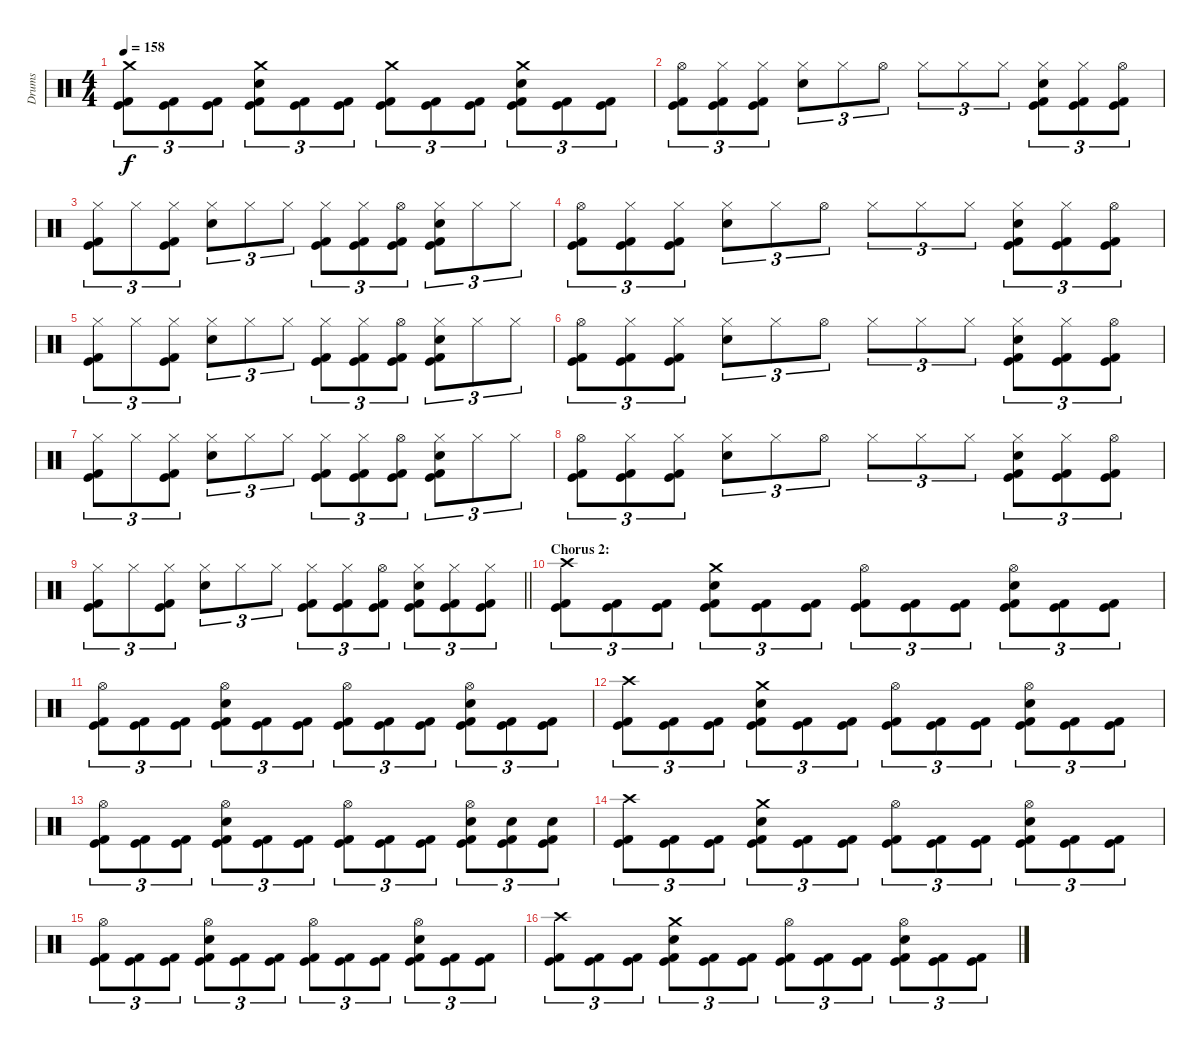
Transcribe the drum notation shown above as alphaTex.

\track ("Drums" "Drums") {instrument percussion}
\staff {score}
\articulation defaults
\ts (4 4)
\tempo 158
\clef neutral
\ks c
("Crash medium (hit)" "Kick (hit)" "Kick (hit) 2").8{tu (3 2) dy f} ("Kick (hit)" "Kick (hit) 2").8{tu (3 2)} ("Kick (hit)" "Kick (hit) 2").8{tu (3 2)} ("Crash medium (hit)" "Snare (hit) 2" "Kick (hit)" "Kick (hit) 2").8{tu (3 2)} ("Kick (hit)" "Kick (hit) 2").8{tu (3 2)} ("Kick (hit)" "Kick (hit) 2").8{tu (3 2)} ("Crash medium (hit)" "Kick (hit)" "Kick (hit) 2").8{tu (3 2)} ("Kick (hit)" "Kick (hit) 2").8{tu (3 2)} ("Kick (hit)" "Kick (hit) 2").8{tu (3 2)} ("Crash medium (hit)" "Snare (hit) 2" "Kick (hit)" "Kick (hit) 2").8{tu (3 2)} ("Kick (hit)" "Kick (hit) 2").8{tu (3 2)} ("Kick (hit)" "Kick (hit) 2").8{tu (3 2)} |
("Hi-Hat (open)" "Kick (hit)" "Kick (hit) 2").8{tu (3 2)} ("Hi-Hat (closed)" "Kick (hit)" "Kick (hit) 2").8{tu (3 2)} ("Hi-Hat (closed)" "Kick (hit)" "Kick (hit) 2").8{tu (3 2)} ("Hi-Hat (closed)" "Snare (hit) 2").8{tu (3 2)} "Hi-Hat (closed)".8{tu (3 2)} "Hi-Hat (open)".8{tu (3 2)} "Hi-Hat (closed)".8{tu (3 2)} "Hi-Hat (closed)".8{tu (3 2)} "Hi-Hat (closed)".8{tu (3 2)} ("Hi-Hat (closed)" "Snare (hit) 2" "Kick (hit)" "Kick (hit) 2").8{tu (3 2)} ("Hi-Hat (closed)" "Kick (hit)" "Kick (hit) 2").8{tu (3 2)} ("Hi-Hat (open)" "Kick (hit)" "Kick (hit) 2").8{tu (3 2)} |
("Hi-Hat (closed)" "Kick (hit)" "Kick (hit) 2").8{tu (3 2)} "Hi-Hat (closed)".8{tu (3 2)} ("Hi-Hat (closed)" "Kick (hit)" "Kick (hit) 2").8{tu (3 2)} ("Hi-Hat (closed)" "Snare (hit) 2").8{tu (3 2)} "Hi-Hat (closed)".8{tu (3 2)} "Hi-Hat (closed)".8{tu (3 2)} ("Hi-Hat (closed)" "Kick (hit)" "Kick (hit) 2").8{tu (3 2)} ("Hi-Hat (closed)" "Kick (hit)" "Kick (hit) 2").8{tu (3 2)} ("Hi-Hat (open)" "Kick (hit)" "Kick (hit) 2").8{tu (3 2)} ("Hi-Hat (closed)" "Snare (hit) 2" "Kick (hit)" "Kick (hit) 2").8{tu (3 2)} "Hi-Hat (closed)".8{tu (3 2)} "Hi-Hat (closed)".8{tu (3 2)} |
("Hi-Hat (open)" "Kick (hit)" "Kick (hit) 2").8{tu (3 2)} ("Hi-Hat (closed)" "Kick (hit)" "Kick (hit) 2").8{tu (3 2)} ("Hi-Hat (closed)" "Kick (hit)" "Kick (hit) 2").8{tu (3 2)} ("Hi-Hat (closed)" "Snare (hit) 2").8{tu (3 2)} "Hi-Hat (closed)".8{tu (3 2)} "Hi-Hat (open)".8{tu (3 2)} "Hi-Hat (closed)".8{tu (3 2)} "Hi-Hat (closed)".8{tu (3 2)} "Hi-Hat (closed)".8{tu (3 2)} ("Hi-Hat (closed)" "Snare (hit) 2" "Kick (hit)" "Kick (hit) 2").8{tu (3 2)} ("Hi-Hat (closed)" "Kick (hit)" "Kick (hit) 2").8{tu (3 2)} ("Hi-Hat (open)" "Kick (hit)" "Kick (hit) 2").8{tu (3 2)} |
("Hi-Hat (closed)" "Kick (hit)" "Kick (hit) 2").8{tu (3 2)} "Hi-Hat (closed)".8{tu (3 2)} ("Hi-Hat (closed)" "Kick (hit)" "Kick (hit) 2").8{tu (3 2)} ("Hi-Hat (closed)" "Snare (hit) 2").8{tu (3 2)} "Hi-Hat (closed)".8{tu (3 2)} "Hi-Hat (closed)".8{tu (3 2)} ("Hi-Hat (closed)" "Kick (hit)" "Kick (hit) 2").8{tu (3 2)} ("Hi-Hat (closed)" "Kick (hit)" "Kick (hit) 2").8{tu (3 2)} ("Hi-Hat (open)" "Kick (hit)" "Kick (hit) 2").8{tu (3 2)} ("Hi-Hat (closed)" "Snare (hit) 2" "Kick (hit)" "Kick (hit) 2").8{tu (3 2)} "Hi-Hat (closed)".8{tu (3 2)} "Hi-Hat (closed)".8{tu (3 2)} |
("Hi-Hat (open)" "Kick (hit)" "Kick (hit) 2").8{tu (3 2)} ("Hi-Hat (closed)" "Kick (hit)" "Kick (hit) 2").8{tu (3 2)} ("Hi-Hat (closed)" "Kick (hit)" "Kick (hit) 2").8{tu (3 2)} ("Hi-Hat (closed)" "Snare (hit) 2").8{tu (3 2)} "Hi-Hat (closed)".8{tu (3 2)} "Hi-Hat (open)".8{tu (3 2)} "Hi-Hat (closed)".8{tu (3 2)} "Hi-Hat (closed)".8{tu (3 2)} "Hi-Hat (closed)".8{tu (3 2)} ("Hi-Hat (closed)" "Snare (hit) 2" "Kick (hit)" "Kick (hit) 2").8{tu (3 2)} ("Hi-Hat (closed)" "Kick (hit)" "Kick (hit) 2").8{tu (3 2)} ("Hi-Hat (open)" "Kick (hit)" "Kick (hit) 2").8{tu (3 2)} |
("Hi-Hat (closed)" "Kick (hit)" "Kick (hit) 2").8{tu (3 2)} "Hi-Hat (closed)".8{tu (3 2)} ("Hi-Hat (closed)" "Kick (hit)" "Kick (hit) 2").8{tu (3 2)} ("Hi-Hat (closed)" "Snare (hit) 2").8{tu (3 2)} "Hi-Hat (closed)".8{tu (3 2)} "Hi-Hat (closed)".8{tu (3 2)} ("Hi-Hat (closed)" "Kick (hit)" "Kick (hit) 2").8{tu (3 2)} ("Hi-Hat (closed)" "Kick (hit)" "Kick (hit) 2").8{tu (3 2)} ("Hi-Hat (open)" "Kick (hit)" "Kick (hit) 2").8{tu (3 2)} ("Hi-Hat (closed)" "Snare (hit) 2" "Kick (hit)" "Kick (hit) 2").8{tu (3 2)} "Hi-Hat (closed)".8{tu (3 2)} "Hi-Hat (closed)".8{tu (3 2)} |
("Hi-Hat (open)" "Kick (hit)" "Kick (hit) 2").8{tu (3 2)} ("Hi-Hat (closed)" "Kick (hit)" "Kick (hit) 2").8{tu (3 2)} ("Hi-Hat (closed)" "Kick (hit)" "Kick (hit) 2").8{tu (3 2)} ("Hi-Hat (closed)" "Snare (hit) 2").8{tu (3 2)} "Hi-Hat (closed)".8{tu (3 2)} "Hi-Hat (open)".8{tu (3 2)} "Hi-Hat (closed)".8{tu (3 2)} "Hi-Hat (closed)".8{tu (3 2)} "Hi-Hat (closed)".8{tu (3 2)} ("Hi-Hat (closed)" "Snare (hit) 2" "Kick (hit)" "Kick (hit) 2").8{tu (3 2)} ("Hi-Hat (closed)" "Kick (hit)" "Kick (hit) 2").8{tu (3 2)} ("Hi-Hat (open)" "Kick (hit)" "Kick (hit) 2").8{tu (3 2)} |
\barLineRight lightlight
("Hi-Hat (closed)" "Kick (hit)" "Kick (hit) 2").8{tu (3 2)} "Hi-Hat (closed)".8{tu (3 2)} ("Hi-Hat (closed)" "Kick (hit)" "Kick (hit) 2").8{tu (3 2)} ("Hi-Hat (closed)" "Snare (hit) 2").8{tu (3 2)} "Hi-Hat (closed)".8{tu (3 2)} "Hi-Hat (closed)".8{tu (3 2)} ("Hi-Hat (closed)" "Kick (hit)" "Kick (hit) 2").8{tu (3 2)} ("Hi-Hat (closed)" "Kick (hit)" "Kick (hit) 2").8{tu (3 2)} ("Hi-Hat (open)" "Kick (hit)" "Kick (hit) 2").8{tu (3 2)} ("Hi-Hat (closed)" "Snare (hit) 2" "Kick (hit)" "Kick (hit) 2").8{tu (3 2)} ("Hi-Hat (closed)" "Kick (hit)" "Kick (hit) 2").8{tu (3 2)} ("Hi-Hat (closed)" "Kick (hit)" "Kick (hit) 2").8{tu (3 2)} |
\section ("" "Chorus 2:")
("Crash high (hit)" "Kick (hit)" "Kick (hit) 2").8{tu (3 2)} ("Kick (hit)" "Kick (hit) 2").8{tu (3 2)} ("Kick (hit)" "Kick (hit) 2").8{tu (3 2)} ("Crash medium (hit)" "Snare (hit) 2" "Kick (hit)" "Kick (hit) 2").8{tu (3 2)} ("Kick (hit)" "Kick (hit) 2").8{tu (3 2)} ("Kick (hit)" "Kick (hit) 2").8{tu (3 2)} ("Hi-Hat (open)" "Kick (hit)" "Kick (hit) 2").8{tu (3 2)} ("Kick (hit)" "Kick (hit) 2").8{tu (3 2)} ("Kick (hit)" "Kick (hit) 2").8{tu (3 2)} ("Hi-Hat (open)" "Snare (hit) 2" "Kick (hit)" "Kick (hit) 2").8{tu (3 2)} ("Kick (hit)" "Kick (hit) 2").8{tu (3 2)} ("Kick (hit)" "Kick (hit) 2").8{tu (3 2)} |
("Hi-Hat (open)" "Kick (hit)" "Kick (hit) 2").8{tu (3 2)} ("Kick (hit)" "Kick (hit) 2").8{tu (3 2)} ("Kick (hit)" "Kick (hit) 2").8{tu (3 2)} ("Hi-Hat (open)" "Snare (hit) 2" "Kick (hit)" "Kick (hit) 2").8{tu (3 2)} ("Kick (hit)" "Kick (hit) 2").8{tu (3 2)} ("Kick (hit)" "Kick (hit) 2").8{tu (3 2)} ("Hi-Hat (open)" "Kick (hit)" "Kick (hit) 2").8{tu (3 2)} ("Kick (hit)" "Kick (hit) 2").8{tu (3 2)} ("Kick (hit)" "Kick (hit) 2").8{tu (3 2)} ("Hi-Hat (open)" "Snare (hit) 2" "Kick (hit)" "Kick (hit) 2").8{tu (3 2)} ("Kick (hit)" "Kick (hit) 2").8{tu (3 2)} ("Kick (hit)" "Kick (hit) 2").8{tu (3 2)} |
("Crash high (hit)" "Kick (hit)" "Kick (hit) 2").8{tu (3 2)} ("Kick (hit)" "Kick (hit) 2").8{tu (3 2)} ("Kick (hit)" "Kick (hit) 2").8{tu (3 2)} ("Crash medium (hit)" "Snare (hit) 2" "Kick (hit)" "Kick (hit) 2").8{tu (3 2)} ("Kick (hit)" "Kick (hit) 2").8{tu (3 2)} ("Kick (hit)" "Kick (hit) 2").8{tu (3 2)} ("Hi-Hat (open)" "Kick (hit)" "Kick (hit) 2").8{tu (3 2)} ("Kick (hit)" "Kick (hit) 2").8{tu (3 2)} ("Kick (hit)" "Kick (hit) 2").8{tu (3 2)} ("Hi-Hat (open)" "Snare (hit) 2" "Kick (hit)" "Kick (hit) 2").8{tu (3 2)} ("Kick (hit)" "Kick (hit) 2").8{tu (3 2)} ("Kick (hit)" "Kick (hit) 2").8{tu (3 2)} |
("Hi-Hat (open)" "Kick (hit)" "Kick (hit) 2").8{tu (3 2)} ("Kick (hit)" "Kick (hit) 2").8{tu (3 2)} ("Kick (hit)" "Kick (hit) 2").8{tu (3 2)} ("Hi-Hat (open)" "Snare (hit) 2" "Kick (hit)" "Kick (hit) 2").8{tu (3 2)} ("Kick (hit)" "Kick (hit) 2").8{tu (3 2)} ("Kick (hit)" "Kick (hit) 2").8{tu (3 2)} ("Hi-Hat (open)" "Kick (hit)" "Kick (hit) 2").8{tu (3 2)} ("Kick (hit)" "Kick (hit) 2").8{tu (3 2)} ("Kick (hit)" "Kick (hit) 2").8{tu (3 2)} ("Hi-Hat (open)" "Snare (hit) 2" "Kick (hit)" "Kick (hit) 2").8{tu (3 2)} ("Snare (hit) 2" "Kick (hit)" "Kick (hit) 2").8{tu (3 2)} ("Snare (hit) 2" "Kick (hit)" "Kick (hit) 2").8{tu (3 2)} |
("Crash high (hit)" "Kick (hit)" "Kick (hit) 2").8{tu (3 2)} ("Kick (hit)" "Kick (hit) 2").8{tu (3 2)} ("Kick (hit)" "Kick (hit) 2").8{tu (3 2)} ("Crash medium (hit)" "Snare (hit) 2" "Kick (hit)" "Kick (hit) 2").8{tu (3 2)} ("Kick (hit)" "Kick (hit) 2").8{tu (3 2)} ("Kick (hit)" "Kick (hit) 2").8{tu (3 2)} ("Hi-Hat (open)" "Kick (hit)" "Kick (hit) 2").8{tu (3 2)} ("Kick (hit)" "Kick (hit) 2").8{tu (3 2)} ("Kick (hit)" "Kick (hit) 2").8{tu (3 2)} ("Hi-Hat (open)" "Snare (hit) 2" "Kick (hit)" "Kick (hit) 2").8{tu (3 2)} ("Kick (hit)" "Kick (hit) 2").8{tu (3 2)} ("Kick (hit)" "Kick (hit) 2").8{tu (3 2)} |
("Hi-Hat (open)" "Kick (hit)" "Kick (hit) 2").8{tu (3 2)} ("Kick (hit)" "Kick (hit) 2").8{tu (3 2)} ("Kick (hit)" "Kick (hit) 2").8{tu (3 2)} ("Hi-Hat (open)" "Snare (hit) 2" "Kick (hit)" "Kick (hit) 2").8{tu (3 2)} ("Kick (hit)" "Kick (hit) 2").8{tu (3 2)} ("Kick (hit)" "Kick (hit) 2").8{tu (3 2)} ("Hi-Hat (open)" "Kick (hit)" "Kick (hit) 2").8{tu (3 2)} ("Kick (hit)" "Kick (hit) 2").8{tu (3 2)} ("Kick (hit)" "Kick (hit) 2").8{tu (3 2)} ("Hi-Hat (open)" "Snare (hit) 2" "Kick (hit)" "Kick (hit) 2").8{tu (3 2)} ("Kick (hit)" "Kick (hit) 2").8{tu (3 2)} ("Kick (hit)" "Kick (hit) 2").8{tu (3 2)} |
("Crash high (hit)" "Kick (hit)" "Kick (hit) 2").8{tu (3 2)} ("Kick (hit)" "Kick (hit) 2").8{tu (3 2)} ("Kick (hit)" "Kick (hit) 2").8{tu (3 2)} ("Crash medium (hit)" "Snare (hit) 2" "Kick (hit)" "Kick (hit) 2").8{tu (3 2)} ("Kick (hit)" "Kick (hit) 2").8{tu (3 2)} ("Kick (hit)" "Kick (hit) 2").8{tu (3 2)} ("Hi-Hat (open)" "Kick (hit)" "Kick (hit) 2").8{tu (3 2)} ("Kick (hit)" "Kick (hit) 2").8{tu (3 2)} ("Kick (hit)" "Kick (hit) 2").8{tu (3 2)} ("Hi-Hat (open)" "Snare (hit) 2" "Kick (hit)" "Kick (hit) 2").8{tu (3 2)} ("Kick (hit)" "Kick (hit) 2").8{tu (3 2)} ("Kick (hit)" "Kick (hit) 2").8{tu (3 2)}
